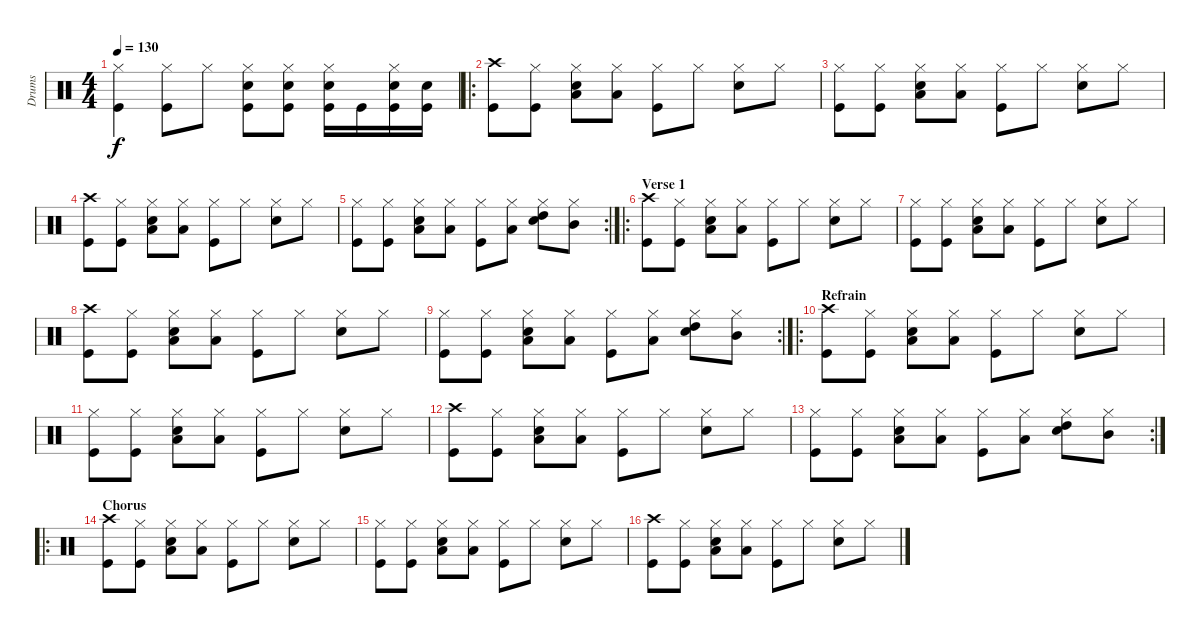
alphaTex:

\track ("Drums" "Drums") {instrument percussion}
\staff {score}
\articulation defaults
\ts (4 4)
\tempo 130
\clef neutral
\ks c
("Hi-Hat (closed)" "Kick (hit)").4{dy f} ("Hi-Hat (closed)" "Kick (hit)").8 "Hi-Hat (closed)".8 ("Hi-Hat (closed)" "Snare (hit) 2" "Kick (hit)").8 ("Hi-Hat (closed)" "Snare (hit) 2" "Kick (hit)").8 ("Hi-Hat (closed)" "Snare (hit) 2" "Kick (hit)").16 "Kick (hit)".16 ("Hi-Hat (closed)" "Snare (hit) 2" "Kick (hit)").16 ("Snare (hit) 2" "Kick (hit)").16 |
\ro
("Crash high (hit)" "Kick (hit)").8 ("Hi-Hat (closed)" "Kick (hit)").8 ("Low Tom (hit)" "Hi-Hat (closed)" "Snare (hit) 2").8 ("Low Tom (hit)" "Hi-Hat (closed)").8 ("Hi-Hat (closed)" "Kick (hit)").8 "Hi-Hat (closed)".8 ("Hi-Hat (closed)" "Snare (hit) 2").8 "Hi-Hat (closed)".8 |
("Hi-Hat (closed)" "Kick (hit)").8 ("Hi-Hat (closed)" "Kick (hit)").8 ("Low Tom (hit)" "Hi-Hat (closed)" "Snare (hit) 2").8 ("Low Tom (hit)" "Hi-Hat (closed)").8 ("Hi-Hat (closed)" "Kick (hit)").8 "Hi-Hat (closed)".8 ("Hi-Hat (closed)" "Snare (hit) 2").8 "Hi-Hat (closed)".8 |
("Crash high (hit)" "Kick (hit)").8 ("Hi-Hat (closed)" "Kick (hit)").8 ("Low Tom (hit)" "Hi-Hat (closed)" "Snare (hit) 2").8 ("Low Tom (hit)" "Hi-Hat (closed)").8 ("Hi-Hat (closed)" "Kick (hit)").8 "Hi-Hat (closed)".8 ("Hi-Hat (closed)" "Snare (hit) 2").8 "Hi-Hat (closed)".8 |
\rc 2
("Hi-Hat (closed)" "Kick (hit)").8 ("Hi-Hat (closed)" "Kick (hit)").8 ("Low Tom (hit)" "Hi-Hat (closed)" "Snare (hit) 2").8 ("Low Tom (hit)" "Hi-Hat (closed)").8 ("Hi-Hat (closed)" "Kick (hit)").8 ("Low Tom (hit)" "Hi-Hat (closed)").8 ("High Tom (hit)" "Hi-Hat (closed)" "Snare (hit) 2").8 ("Mid Tom (hit)" "Hi-Hat (closed)").8 |
\ro
\section ("" "Verse 1")
("Crash high (hit)" "Kick (hit)").8 ("Hi-Hat (closed)" "Kick (hit)").8 ("Low Tom (hit)" "Hi-Hat (closed)" "Snare (hit) 2").8 ("Low Tom (hit)" "Hi-Hat (closed)").8 ("Hi-Hat (closed)" "Kick (hit)").8 "Hi-Hat (closed)".8 ("Hi-Hat (closed)" "Snare (hit) 2").8 "Hi-Hat (closed)".8 |
("Hi-Hat (closed)" "Kick (hit)").8 ("Hi-Hat (closed)" "Kick (hit)").8 ("Low Tom (hit)" "Hi-Hat (closed)" "Snare (hit) 2").8 ("Low Tom (hit)" "Hi-Hat (closed)").8 ("Hi-Hat (closed)" "Kick (hit)").8 "Hi-Hat (closed)".8 ("Hi-Hat (closed)" "Snare (hit) 2").8 "Hi-Hat (closed)".8 |
("Crash high (hit)" "Kick (hit)").8 ("Hi-Hat (closed)" "Kick (hit)").8 ("Low Tom (hit)" "Hi-Hat (closed)" "Snare (hit) 2").8 ("Low Tom (hit)" "Hi-Hat (closed)").8 ("Hi-Hat (closed)" "Kick (hit)").8 "Hi-Hat (closed)".8 ("Hi-Hat (closed)" "Snare (hit) 2").8 "Hi-Hat (closed)".8 |
\rc 2
("Hi-Hat (closed)" "Kick (hit)").8 ("Hi-Hat (closed)" "Kick (hit)").8 ("Low Tom (hit)" "Hi-Hat (closed)" "Snare (hit) 2").8 ("Low Tom (hit)" "Hi-Hat (closed)").8 ("Hi-Hat (closed)" "Kick (hit)").8 ("Low Tom (hit)" "Hi-Hat (closed)").8 ("High Tom (hit)" "Hi-Hat (closed)" "Snare (hit) 2").8 ("Mid Tom (hit)" "Hi-Hat (closed)").8 |
\ro
\section ("" "Refrain")
("Crash high (hit)" "Kick (hit)").8 ("Hi-Hat (closed)" "Kick (hit)").8 ("Low Tom (hit)" "Hi-Hat (closed)" "Snare (hit) 2").8 ("Low Tom (hit)" "Hi-Hat (closed)").8 ("Hi-Hat (closed)" "Kick (hit)").8 "Hi-Hat (closed)".8 ("Hi-Hat (closed)" "Snare (hit) 2").8 "Hi-Hat (closed)".8 |
("Hi-Hat (closed)" "Kick (hit)").8 ("Hi-Hat (closed)" "Kick (hit)").8 ("Low Tom (hit)" "Hi-Hat (closed)" "Snare (hit) 2").8 ("Low Tom (hit)" "Hi-Hat (closed)").8 ("Hi-Hat (closed)" "Kick (hit)").8 "Hi-Hat (closed)".8 ("Hi-Hat (closed)" "Snare (hit) 2").8 "Hi-Hat (closed)".8 |
("Crash high (hit)" "Kick (hit)").8 ("Hi-Hat (closed)" "Kick (hit)").8 ("Low Tom (hit)" "Hi-Hat (closed)" "Snare (hit) 2").8 ("Low Tom (hit)" "Hi-Hat (closed)").8 ("Hi-Hat (closed)" "Kick (hit)").8 "Hi-Hat (closed)".8 ("Hi-Hat (closed)" "Snare (hit) 2").8 "Hi-Hat (closed)".8 |
\rc 2
("Hi-Hat (closed)" "Kick (hit)").8 ("Hi-Hat (closed)" "Kick (hit)").8 ("Low Tom (hit)" "Hi-Hat (closed)" "Snare (hit) 2").8 ("Low Tom (hit)" "Hi-Hat (closed)").8 ("Hi-Hat (closed)" "Kick (hit)").8 ("Low Tom (hit)" "Hi-Hat (closed)").8 ("High Tom (hit)" "Hi-Hat (closed)" "Snare (hit) 2").8 ("Mid Tom (hit)" "Hi-Hat (closed)").8 |
\ro
\section ("" "Chorus")
("Crash high (hit)" "Kick (hit)").8 ("Hi-Hat (closed)" "Kick (hit)").8 ("Low Tom (hit)" "Hi-Hat (closed)" "Snare (hit) 2").8 ("Low Tom (hit)" "Hi-Hat (closed)").8 ("Hi-Hat (closed)" "Kick (hit)").8 "Hi-Hat (closed)".8 ("Hi-Hat (closed)" "Snare (hit) 2").8 "Hi-Hat (closed)".8 |
("Hi-Hat (closed)" "Kick (hit)").8 ("Hi-Hat (closed)" "Kick (hit)").8 ("Low Tom (hit)" "Hi-Hat (closed)" "Snare (hit) 2").8 ("Low Tom (hit)" "Hi-Hat (closed)").8 ("Hi-Hat (closed)" "Kick (hit)").8 "Hi-Hat (closed)".8 ("Hi-Hat (closed)" "Snare (hit) 2").8 "Hi-Hat (closed)".8 |
("Crash high (hit)" "Kick (hit)").8 ("Hi-Hat (closed)" "Kick (hit)").8 ("Low Tom (hit)" "Hi-Hat (closed)" "Snare (hit) 2").8 ("Low Tom (hit)" "Hi-Hat (closed)").8 ("Hi-Hat (closed)" "Kick (hit)").8 "Hi-Hat (closed)".8 ("Hi-Hat (closed)" "Snare (hit) 2").8 "Hi-Hat (closed)".8
